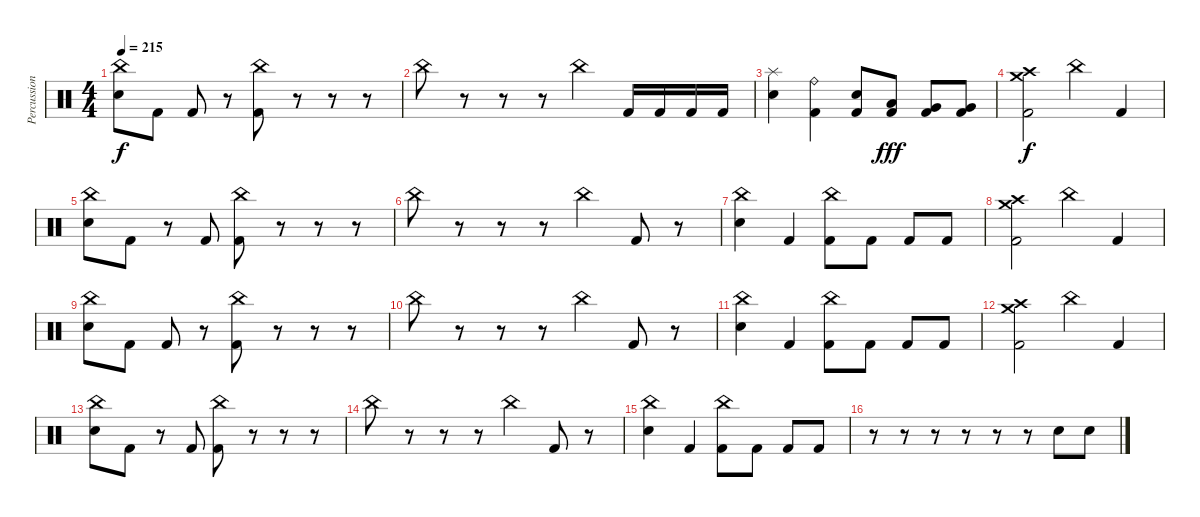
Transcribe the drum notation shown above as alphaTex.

\track ("Percussion" "Percussion") {instrument percussion}
\staff {score}
\articulation defaults
\ts (4 4)
\tempo 215
\clef neutral
\ks c
("China (hit)" "Electric Snare (hit)").8{dy f} "Kick (hit) 2".8 "Kick (hit) 2".8 r.8 ("China (hit)" "Kick (hit) 2").8 r.8 r.8 r.8 |
"China (hit)".8 r.8 r.8 r.8 "China (hit)".4 "Kick (hit) 2".16 "Kick (hit) 2".16 "Kick (hit) 2".16 "Kick (hit) 2".16 |
("Splash (hit)" "Electric Snare (hit)").4 ("Ride (bell)" "Kick (hit) 2").4 ("Electric Snare (hit)" "Kick (hit) 2").8 ("Low Tom (hit)" "Kick (hit) 2").8{dy fff} ("Very Low Tom (hit)" "Kick (hit) 2").8 ("Very Low Tom (hit)" "Kick (hit) 2").8 |
("Crash medium (hit)" "Crash high (hit)" "Kick (hit) 2").2{dy f} "China (hit)".4 "Kick (hit) 2".4 |
("China (hit)" "Electric Snare (hit)").8 "Kick (hit) 2".8 r.8 "Kick (hit) 2".8 ("China (hit)" "Kick (hit) 2").8 r.8 r.8 r.8 |
"China (hit)".8 r.8 r.8 r.8 "China (hit)".4 "Kick (hit) 2".8 r.8 |
("China (hit)" "Electric Snare (hit)").4 "Kick (hit) 2".4 ("China (hit)" "Kick (hit) 2").8 "Kick (hit) 2".8 "Kick (hit) 2".8 "Kick (hit) 2".8 |
("Crash medium (hit)" "Crash high (hit)" "Kick (hit) 2").2 "China (hit)".4 "Kick (hit) 2".4 |
("China (hit)" "Electric Snare (hit)").8 "Kick (hit) 2".8 "Kick (hit) 2".8 r.8 ("China (hit)" "Kick (hit) 2").8 r.8 r.8 r.8 |
"China (hit)".8 r.8 r.8 r.8 "China (hit)".4 "Kick (hit) 2".8 r.8 |
("China (hit)" "Electric Snare (hit)").4 "Kick (hit) 2".4 ("China (hit)" "Kick (hit) 2").8 "Kick (hit) 2".8 "Kick (hit) 2".8 "Kick (hit) 2".8 |
("Crash medium (hit)" "Crash high (hit)" "Kick (hit) 2").2 "China (hit)".4 "Kick (hit) 2".4 |
("China (hit)" "Electric Snare (hit)").8 "Kick (hit) 2".8 r.8 "Kick (hit) 2".8 ("China (hit)" "Kick (hit) 2").8 r.8 r.8 r.8 |
"China (hit)".8 r.8 r.8 r.8 "China (hit)".4 "Kick (hit) 2".8 r.8 |
("China (hit)" "Electric Snare (hit)").4 "Kick (hit) 2".4 ("China (hit)" "Kick (hit) 2").8 "Kick (hit) 2".8 "Kick (hit) 2".8 "Kick (hit) 2".8 |
r.8 r.8 r.8 r.8 r.8 r.8 "Electric Snare (hit)".8 "Electric Snare (hit)".8
